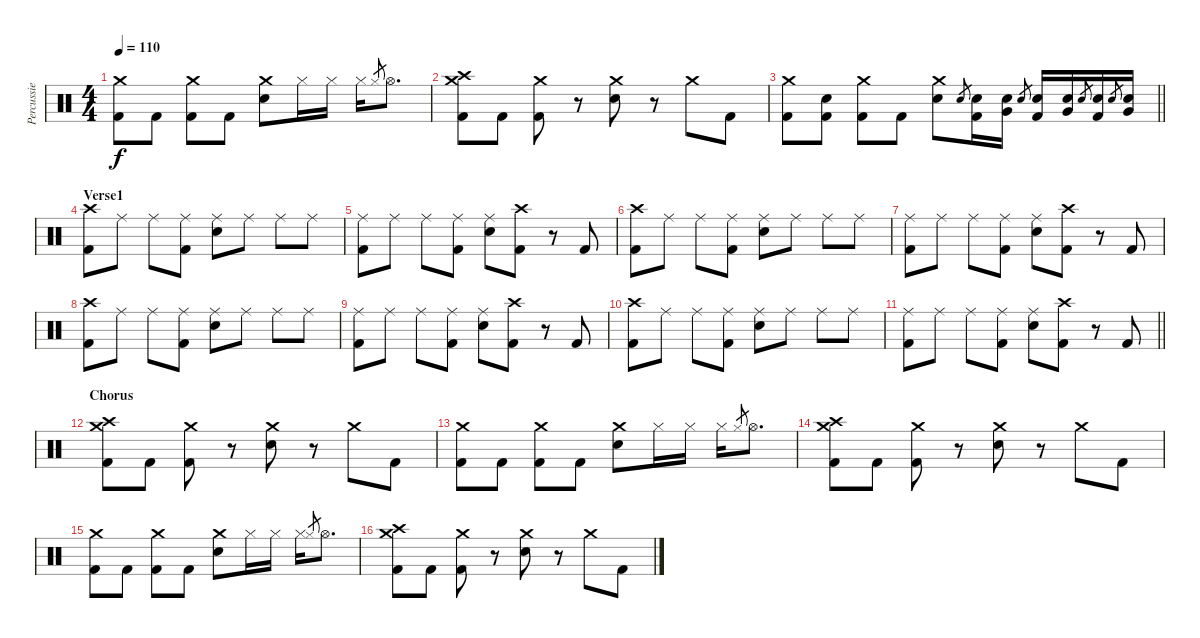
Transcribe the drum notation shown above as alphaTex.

\track ("Percussie" "Percussie") {instrument percussion}
\staff {score}
\articulation defaults
\ts (4 4)
\tempo 110
\clef neutral
\ks c
("Crash medium (hit)" "Kick (hit) 2").8{dy f} "Kick (hit) 2".8 ("Crash medium (hit)" "Kick (hit) 2").8 "Kick (hit) 2".8 ("Crash medium (hit)" "Electric Snare (hit)").8 "Hi-Hat (closed)".16 "Hi-Hat (closed)".16 "Hi-Hat (closed)".16 "Hi-Hat (closed)"{sl x}.8{gr} "Hi-Hat (open)".8{d} |
("Crash high (hit)" "Crash medium (hit)" "Kick (hit) 2").8 "Kick (hit) 2".8 ("Crash medium (hit)" "Kick (hit) 2").8 r.8 ("Crash medium (hit)" "Electric Snare (hit)").8 r.8 "Crash medium (hit)".8 "Kick (hit) 2".8 |
\barLineRight lightlight
("Crash medium (hit)" "Kick (hit) 2").8 ("Electric Snare (hit)" "Kick (hit) 2").8 ("Crash medium (hit)" "Kick (hit) 2").8 "Kick (hit) 2".8 ("Crash medium (hit)" "Electric Snare (hit)").8 "Electric Snare (hit)".8{gr} ("Electric Snare (hit)" "Kick (hit) 2").16 ("Electric Snare (hit)" "Very Low Tom (hit)").16 "Electric Snare (hit)".8{gr} ("Electric Snare (hit)" "Kick (hit) 2").16 ("Electric Snare (hit)" "Very Low Tom (hit)").16 "Electric Snare (hit)".8{gr} ("Electric Snare (hit)" "Kick (hit) 2").16 "Electric Snare (hit)".8{gr} ("Electric Snare (hit)" "Very Low Tom (hit)").16 |
\section ("" "Verse1")
("Crash high (hit)" "Kick (hit) 2").8 "Ride (middle)".8 "Ride (middle)".8 ("Ride (middle)" "Kick (hit) 2").8 ("Ride (middle)" "Electric Snare (hit)").8 "Ride (middle)".8 "Ride (middle)".8 "Ride (middle)".8 |
("Ride (middle)" "Kick (hit) 2").8 "Ride (middle)".8 "Ride (middle)".8 ("Ride (middle)" "Kick (hit) 2").8 ("Ride (middle)" "Electric Snare (hit)").8 ("Crash high (hit)" "Kick (hit) 2").8 r.8 "Kick (hit) 2".8 |
("Crash high (hit)" "Kick (hit) 2").8 "Ride (middle)".8 "Ride (middle)".8 ("Ride (middle)" "Kick (hit) 2").8 ("Ride (middle)" "Electric Snare (hit)").8 "Ride (middle)".8 "Ride (middle)".8 "Ride (middle)".8 |
("Ride (middle)" "Kick (hit) 2").8 "Ride (middle)".8 "Ride (middle)".8 ("Ride (middle)" "Kick (hit) 2").8 ("Ride (middle)" "Electric Snare (hit)").8 ("Crash high (hit)" "Kick (hit) 2").8 r.8 "Kick (hit) 2".8 |
("Crash high (hit)" "Kick (hit) 2").8 "Ride (middle)".8 "Ride (middle)".8 ("Ride (middle)" "Kick (hit) 2").8 ("Ride (middle)" "Electric Snare (hit)").8 "Ride (middle)".8 "Ride (middle)".8 "Ride (middle)".8 |
("Ride (middle)" "Kick (hit) 2").8 "Ride (middle)".8 "Ride (middle)".8 ("Ride (middle)" "Kick (hit) 2").8 ("Ride (middle)" "Electric Snare (hit)").8 ("Crash high (hit)" "Kick (hit) 2").8 r.8 "Kick (hit) 2".8 |
("Crash high (hit)" "Kick (hit) 2").8 "Ride (middle)".8 "Ride (middle)".8 ("Ride (middle)" "Kick (hit) 2").8 ("Ride (middle)" "Electric Snare (hit)").8 "Ride (middle)".8 "Ride (middle)".8 "Ride (middle)".8 |
\barLineRight lightlight
("Ride (middle)" "Kick (hit) 2").8 "Ride (middle)".8 "Ride (middle)".8 ("Ride (middle)" "Kick (hit) 2").8 ("Ride (middle)" "Electric Snare (hit)").8 ("Crash high (hit)" "Kick (hit) 2").8 r.8 "Kick (hit) 2".8 |
\section ("" "Chorus")
("Crash high (hit)" "Crash medium (hit)" "Kick (hit) 2").8 "Kick (hit) 2".8 ("Crash medium (hit)" "Kick (hit) 2").8 r.8 ("Crash medium (hit)" "Electric Snare (hit)").8 r.8 "Crash medium (hit)".8 "Kick (hit) 2".8 |
("Crash medium (hit)" "Kick (hit) 2").8 "Kick (hit) 2".8 ("Crash medium (hit)" "Kick (hit) 2").8 "Kick (hit) 2".8 ("Crash medium (hit)" "Electric Snare (hit)").8 "Hi-Hat (closed)".16 "Hi-Hat (closed)".16 "Hi-Hat (closed)".16 "Hi-Hat (closed)"{sl x}.8{gr} "Hi-Hat (open)".8{d} |
("Crash high (hit)" "Crash medium (hit)" "Kick (hit) 2").8 "Kick (hit) 2".8 ("Crash medium (hit)" "Kick (hit) 2").8 r.8 ("Crash medium (hit)" "Electric Snare (hit)").8 r.8 "Crash medium (hit)".8 "Kick (hit) 2".8 |
("Crash medium (hit)" "Kick (hit) 2").8 "Kick (hit) 2".8 ("Crash medium (hit)" "Kick (hit) 2").8 "Kick (hit) 2".8 ("Crash medium (hit)" "Electric Snare (hit)").8 "Hi-Hat (closed)".16 "Hi-Hat (closed)".16 "Hi-Hat (closed)".16 "Hi-Hat (closed)"{sl x}.8{gr} "Hi-Hat (open)".8{d} |
("Crash high (hit)" "Crash medium (hit)" "Kick (hit) 2").8 "Kick (hit) 2".8 ("Crash medium (hit)" "Kick (hit) 2").8 r.8 ("Crash medium (hit)" "Electric Snare (hit)").8 r.8 "Crash medium (hit)".8 "Kick (hit) 2".8
